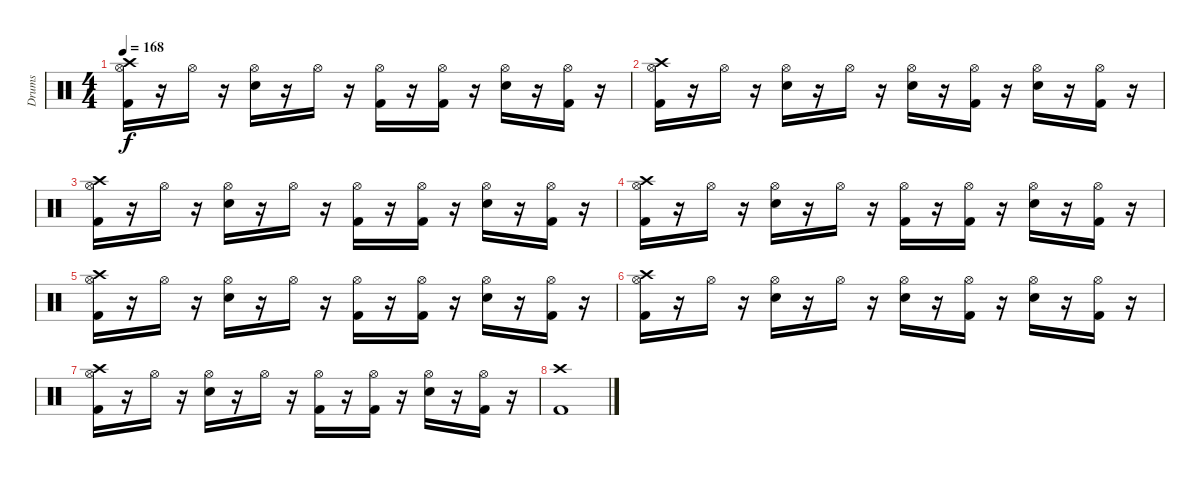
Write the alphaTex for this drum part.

\track ("Drums" "Drums") {instrument percussion}
\staff {score}
\articulation defaults
\ts (4 4)
\tempo 168
\clef neutral
\ks c
("Hi-Hat (open)" "Kick (hit) 2" "Crash high (hit)").16{dy f} r.16 "Hi-Hat (open)".16 r.16 ("Hi-Hat (open)" "Snare (hit) 2").16 r.16 "Hi-Hat (open)".16 r.16 ("Hi-Hat (open)" "Kick (hit) 2").16 r.16 ("Hi-Hat (open)" "Kick (hit) 2").16 r.16 ("Hi-Hat (open)" "Snare (hit) 2").16 r.16 ("Hi-Hat (open)" "Kick (hit) 2").16 r.16 |
("Hi-Hat (open)" "Kick (hit) 2" "Crash high (hit)").16 r.16 "Hi-Hat (open)".16 r.16 ("Hi-Hat (open)" "Snare (hit) 2").16 r.16 "Hi-Hat (open)".16 r.16 ("Hi-Hat (open)" "Snare (hit) 2").16 r.16 ("Hi-Hat (open)" "Kick (hit) 2").16 r.16 ("Hi-Hat (open)" "Snare (hit) 2").16 r.16 ("Hi-Hat (open)" "Kick (hit) 2").16 r.16 |
("Hi-Hat (open)" "Kick (hit) 2" "Crash high (hit)").16 r.16 "Hi-Hat (open)".16 r.16 ("Hi-Hat (open)" "Snare (hit) 2").16 r.16 "Hi-Hat (open)".16 r.16 ("Hi-Hat (open)" "Kick (hit) 2").16 r.16 ("Hi-Hat (open)" "Kick (hit) 2").16 r.16 ("Hi-Hat (open)" "Snare (hit) 2").16 r.16 ("Hi-Hat (open)" "Kick (hit) 2").16 r.16 |
("Hi-Hat (open)" "Kick (hit) 2" "Crash high (hit)").16 r.16 "Hi-Hat (open)".16 r.16 ("Hi-Hat (open)" "Snare (hit) 2").16 r.16 "Hi-Hat (open)".16 r.16 ("Hi-Hat (open)" "Kick (hit) 2").16 r.16 ("Hi-Hat (open)" "Kick (hit) 2").16 r.16 ("Hi-Hat (open)" "Snare (hit) 2").16 r.16 ("Hi-Hat (open)" "Kick (hit) 2").16 r.16 |
("Hi-Hat (open)" "Kick (hit) 2" "Crash high (hit)").16 r.16 "Hi-Hat (open)".16 r.16 ("Hi-Hat (open)" "Snare (hit) 2").16 r.16 "Hi-Hat (open)".16 r.16 ("Hi-Hat (open)" "Kick (hit) 2").16 r.16 ("Hi-Hat (open)" "Kick (hit) 2").16 r.16 ("Hi-Hat (open)" "Snare (hit) 2").16 r.16 ("Hi-Hat (open)" "Kick (hit) 2").16 r.16 |
("Hi-Hat (open)" "Kick (hit) 2" "Crash high (hit)").16 r.16 "Hi-Hat (open)".16 r.16 ("Hi-Hat (open)" "Snare (hit) 2").16 r.16 "Hi-Hat (open)".16 r.16 ("Hi-Hat (open)" "Snare (hit) 2").16 r.16 ("Hi-Hat (open)" "Kick (hit) 2").16 r.16 ("Hi-Hat (open)" "Snare (hit) 2").16 r.16 ("Hi-Hat (open)" "Kick (hit) 2").16 r.16 |
("Hi-Hat (open)" "Kick (hit) 2" "Crash high (hit)").16 r.16 "Hi-Hat (open)".16 r.16 ("Hi-Hat (open)" "Snare (hit) 2").16 r.16 "Hi-Hat (open)".16 r.16 ("Hi-Hat (open)" "Kick (hit) 2").16 r.16 ("Hi-Hat (open)" "Kick (hit) 2").16 r.16 ("Hi-Hat (open)" "Snare (hit) 2").16 r.16 ("Hi-Hat (open)" "Kick (hit) 2").16 r.16 |
("Kick (hit) 2" "Crash high (hit)").1
